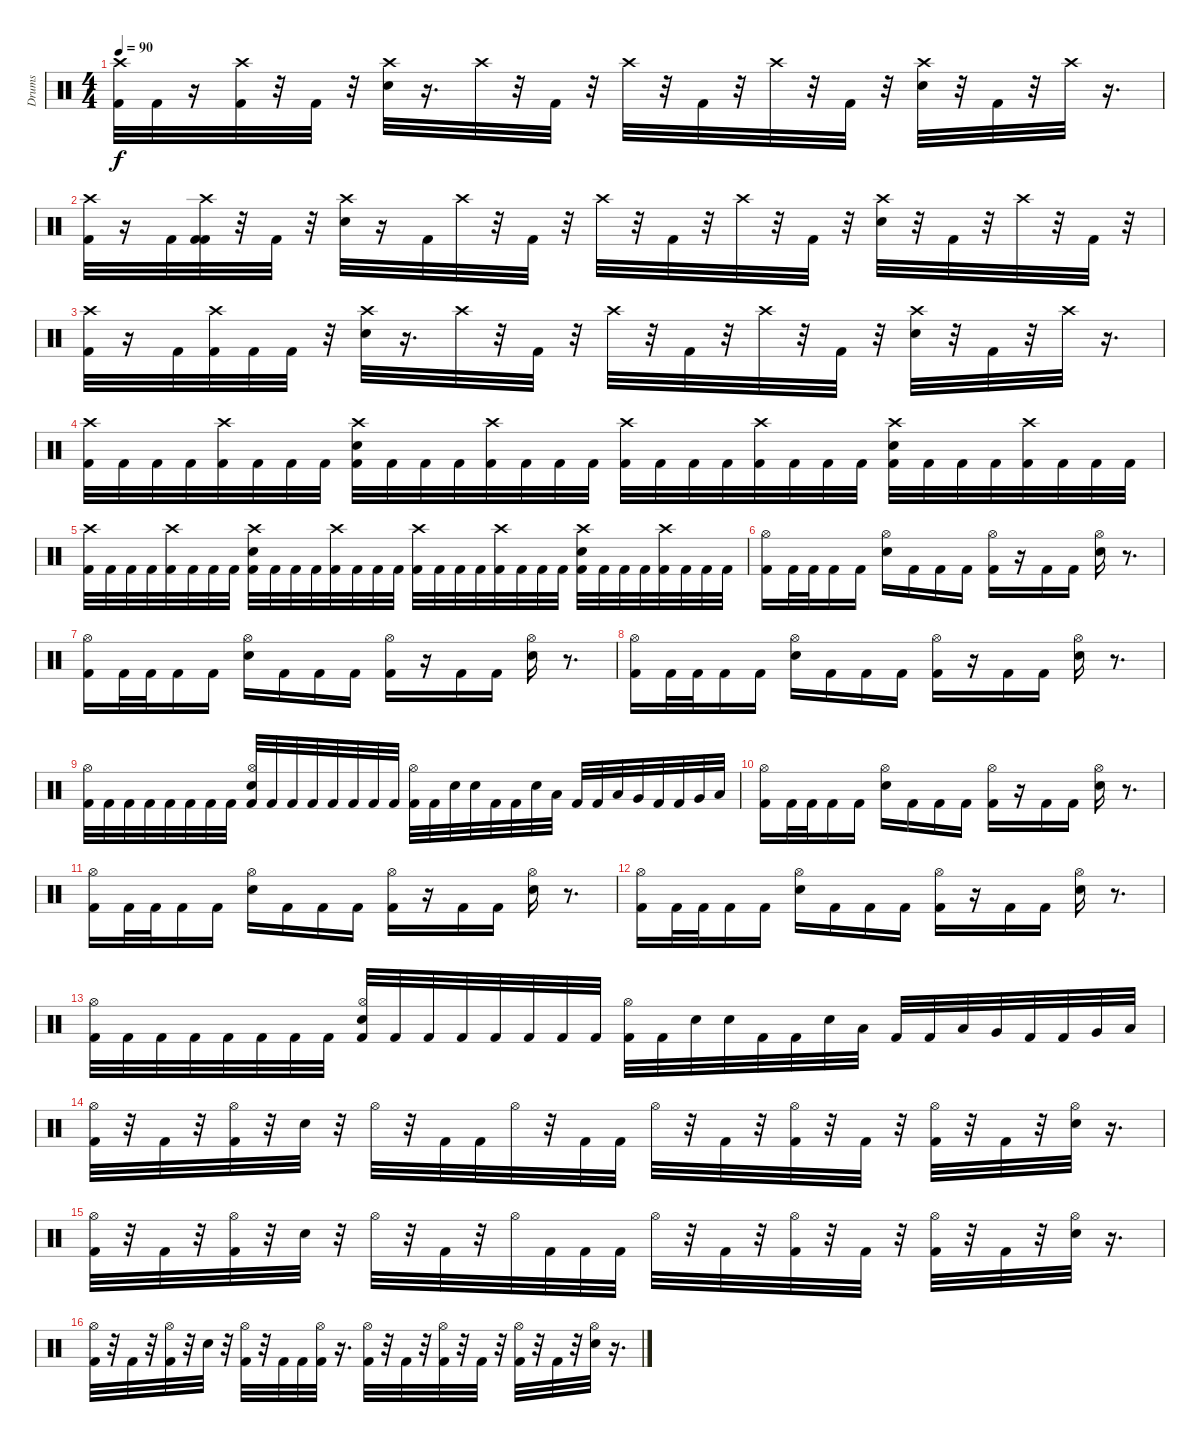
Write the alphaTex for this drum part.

\track ("Drums" "Drums") {instrument percussion}
\staff {score}
\articulation defaults
\ts (4 4)
\tempo 90
\clef neutral
\ks c
("Kick (hit) 2" "Crash high (hit)").32{dy f} "Kick (hit) 2".32 r.16 ("Kick (hit) 2" "Crash high (hit)").32 r.32 "Kick (hit) 2".32 r.32 ("Snare (hit) 2" "Crash high (hit)").32 r.16{d} "Crash high (hit)".32 r.32 "Kick (hit) 2".32 r.32 "Crash high (hit)".32 r.32 "Kick (hit) 2".32 r.32 "Crash high (hit)".32 r.32 "Kick (hit) 2".32 r.32 ("Snare (hit) 2" "Crash high (hit)").32 r.32 "Kick (hit) 2".32 r.32 "Crash high (hit)".32 r.16{d} |
("Kick (hit) 2" "Crash high (hit)").32 r.16 "Kick (hit) 2".32 ("Kick (hit) 2" "Kick (hit) 2" "Crash high (hit)").32 r.32 "Kick (hit) 2".32 r.32 ("Snare (hit) 2" "Crash high (hit)").32 r.16 "Kick (hit) 2".32 "Crash high (hit)".32 r.32 "Kick (hit) 2".32 r.32 "Crash high (hit)".32 r.32 "Kick (hit) 2".32 r.32 "Crash high (hit)".32 r.32 "Kick (hit) 2".32 r.32 ("Snare (hit) 2" "Crash high (hit)").32 r.32 "Kick (hit) 2".32 r.32 "Crash high (hit)".32 r.32 "Kick (hit) 2".32 r.32 |
("Kick (hit) 2" "Crash high (hit)").32 r.16 "Kick (hit) 2".32 ("Kick (hit) 2" "Crash high (hit)").32 "Kick (hit) 2".32 "Kick (hit) 2".32 r.32 ("Snare (hit) 2" "Crash high (hit)").32 r.16{d} "Crash high (hit)".32 r.32 "Kick (hit) 2".32 r.32 "Crash high (hit)".32 r.32 "Kick (hit) 2".32 r.32 "Crash high (hit)".32 r.32 "Kick (hit) 2".32 r.32 ("Snare (hit) 2" "Crash high (hit)").32 r.32 "Kick (hit) 2".32 r.32 "Crash high (hit)".32 r.16{d} |
("Kick (hit) 2" "Crash high (hit)").32 "Kick (hit) 2".32 "Kick (hit) 2".32 "Kick (hit) 2".32 ("Kick (hit) 2" "Crash high (hit)").32 "Kick (hit) 2".32 "Kick (hit) 2".32 "Kick (hit) 2".32 ("Snare (hit) 2" "Crash high (hit)" "Kick (hit) 2").32 "Kick (hit) 2".32 "Kick (hit) 2".32 "Kick (hit) 2".32 ("Crash high (hit)" "Kick (hit) 2").32 "Kick (hit) 2".32 "Kick (hit) 2".32 "Kick (hit) 2".32 ("Crash high (hit)" "Kick (hit) 2").32 "Kick (hit) 2".32 "Kick (hit) 2".32 "Kick (hit) 2".32 ("Kick (hit) 2" "Crash high (hit)").32 "Kick (hit) 2".32 "Kick (hit) 2".32 "Kick (hit) 2".32 ("Snare (hit) 2" "Crash high (hit)" "Kick (hit) 2").32 "Kick (hit) 2".32 "Kick (hit) 2".32 "Kick (hit) 2".32 ("Crash high (hit)" "Kick (hit) 2").32 "Kick (hit) 2".32 "Kick (hit) 2".32 "Kick (hit) 2".32 |
("Kick (hit) 2" "Crash high (hit)").32 "Kick (hit) 2".32 "Kick (hit) 2".32 "Kick (hit) 2".32 ("Kick (hit) 2" "Crash high (hit)").32 "Kick (hit) 2".32 "Kick (hit) 2".32 "Kick (hit) 2".32 ("Snare (hit) 2" "Crash high (hit)" "Kick (hit) 2").32 "Kick (hit) 2".32 "Kick (hit) 2".32 "Kick (hit) 2".32 ("Crash high (hit)" "Kick (hit) 2").32 "Kick (hit) 2".32 "Kick (hit) 2".32 "Kick (hit) 2".32 ("Crash high (hit)" "Kick (hit) 2").32 "Kick (hit) 2".32 "Kick (hit) 2".32 "Kick (hit) 2".32 ("Crash high (hit)" "Kick (hit) 2").32 "Kick (hit) 2".32 "Kick (hit) 2".32 "Kick (hit) 2".32 ("Snare (hit) 2" "Crash high (hit)" "Kick (hit) 2").32 "Kick (hit) 2".32 "Kick (hit) 2".32 "Kick (hit) 2".32 ("Crash high (hit)" "Kick (hit) 2").32 "Kick (hit) 2".32 "Kick (hit) 2".32 "Kick (hit) 2".32 |
("Kick (hit) 2" "Hi-Hat (open)").16 "Kick (hit) 2".32 "Kick (hit) 2".32 "Kick (hit) 2".16 "Kick (hit) 2".16 ("Electric Snare (hit)" "Hi-Hat (open)").16 "Kick (hit) 2".16 "Kick (hit) 2".16 "Kick (hit) 2".16 ("Kick (hit) 2" "Hi-Hat (open)").16 r.16 "Kick (hit) 2".16 "Kick (hit) 2".16 ("Electric Snare (hit)" "Hi-Hat (open)").16 r.8{d} |
("Kick (hit) 2" "Hi-Hat (open)").16 "Kick (hit) 2".32 "Kick (hit) 2".32 "Kick (hit) 2".16 "Kick (hit) 2".16 ("Electric Snare (hit)" "Hi-Hat (open)").16 "Kick (hit) 2".16 "Kick (hit) 2".16 "Kick (hit) 2".16 ("Kick (hit) 2" "Hi-Hat (open)").16 r.16 "Kick (hit) 2".16 "Kick (hit) 2".16 ("Electric Snare (hit)" "Hi-Hat (open)").16 r.8{d} |
("Kick (hit) 2" "Hi-Hat (open)").16 "Kick (hit) 2".32 "Kick (hit) 2".32 "Kick (hit) 2".16 "Kick (hit) 2".16 ("Electric Snare (hit)" "Hi-Hat (open)").16 "Kick (hit) 2".16 "Kick (hit) 2".16 "Kick (hit) 2".16 ("Kick (hit) 2" "Hi-Hat (open)").16 r.16 "Kick (hit) 2".16 "Kick (hit) 2".16 ("Electric Snare (hit)" "Hi-Hat (open)").16 r.8{d} |
("Kick (hit) 2" "Hi-Hat (open)").32 "Kick (hit) 2".32 "Kick (hit) 2".32 "Kick (hit) 2".32 "Kick (hit) 2".32 "Kick (hit) 2".32 "Kick (hit) 2".32 "Kick (hit) 2".32 ("Kick (hit) 2" "Electric Snare (hit)" "Hi-Hat (open)").32 "Kick (hit) 2".32 "Kick (hit) 2".32 "Kick (hit) 2".32 "Kick (hit) 2".32 "Kick (hit) 2".32 "Kick (hit) 2".32 "Kick (hit) 2".32 ("Kick (hit) 2" "Hi-Hat (open)").32 "Kick (hit) 2".32 "Electric Snare (hit)".32 "Electric Snare (hit)".32 "Kick (hit) 2".32 "Kick (hit) 2".32 "Electric Snare (hit)".32 "Low Tom (hit)".32 "Kick (hit) 2".32 "Kick (hit) 2".32 "Low Tom (hit)".32 "Very Low Tom (hit)".32 "Kick (hit) 2".32 "Kick (hit) 2".32 "Very Low Tom (hit)".32 "Low Floor Tom (hit)".32 |
("Kick (hit) 2" "Hi-Hat (open)").16 "Kick (hit) 2".32 "Kick (hit) 2".32 "Kick (hit) 2".16 "Kick (hit) 2".16 ("Electric Snare (hit)" "Hi-Hat (open)").16 "Kick (hit) 2".16 "Kick (hit) 2".16 "Kick (hit) 2".16 ("Kick (hit) 2" "Hi-Hat (open)").16 r.16 "Kick (hit) 2".16 "Kick (hit) 2".16 ("Electric Snare (hit)" "Hi-Hat (open)").16 r.8{d} |
("Kick (hit) 2" "Hi-Hat (open)").16 "Kick (hit) 2".32 "Kick (hit) 2".32 "Kick (hit) 2".16 "Kick (hit) 2".16 ("Electric Snare (hit)" "Hi-Hat (open)").16 "Kick (hit) 2".16 "Kick (hit) 2".16 "Kick (hit) 2".16 ("Kick (hit) 2" "Hi-Hat (open)").16 r.16 "Kick (hit) 2".16 "Kick (hit) 2".16 ("Electric Snare (hit)" "Hi-Hat (open)").16 r.8{d} |
("Kick (hit) 2" "Hi-Hat (open)").16 "Kick (hit) 2".32 "Kick (hit) 2".32 "Kick (hit) 2".16 "Kick (hit) 2".16 ("Electric Snare (hit)" "Hi-Hat (open)").16 "Kick (hit) 2".16 "Kick (hit) 2".16 "Kick (hit) 2".16 ("Kick (hit) 2" "Hi-Hat (open)").16 r.16 "Kick (hit) 2".16 "Kick (hit) 2".16 ("Electric Snare (hit)" "Hi-Hat (open)").16 r.8{d} |
("Kick (hit) 2" "Hi-Hat (open)").32 "Kick (hit) 2".32 "Kick (hit) 2".32 "Kick (hit) 2".32 "Kick (hit) 2".32 "Kick (hit) 2".32 "Kick (hit) 2".32 "Kick (hit) 2".32 ("Kick (hit) 2" "Electric Snare (hit)" "Hi-Hat (open)").32 "Kick (hit) 2".32 "Kick (hit) 2".32 "Kick (hit) 2".32 "Kick (hit) 2".32 "Kick (hit) 2".32 "Kick (hit) 2".32 "Kick (hit) 2".32 ("Kick (hit) 2" "Hi-Hat (open)").32 "Kick (hit) 2".32 "Electric Snare (hit)".32 "Electric Snare (hit)".32 "Kick (hit) 2".32 "Kick (hit) 2".32 "Electric Snare (hit)".32 "Low Tom (hit)".32 "Kick (hit) 2".32 "Kick (hit) 2".32 "Low Tom (hit)".32 "Very Low Tom (hit)".32 "Kick (hit) 2".32 "Kick (hit) 2".32 "Very Low Tom (hit)".32 "Low Floor Tom (hit)".32 |
("Kick (hit) 2" "Hi-Hat (open)").32 r.32 "Kick (hit) 2".32 r.32 ("Kick (hit) 2" "Hi-Hat (open)").32 r.32 "Snare (hit) 2".32 r.32 "Hi-Hat (open)".32 r.32 "Kick (hit) 2".32 "Kick (hit) 2".32 "Hi-Hat (open)".32 r.32 "Kick (hit) 2".32 "Kick (hit) 2".32 "Hi-Hat (open)".32 r.32 "Kick (hit) 2".32 r.32 ("Kick (hit) 2" "Hi-Hat (open)").32 r.32 "Kick (hit) 2".32 r.32 ("Kick (hit) 2" "Hi-Hat (open)").32 r.32 "Kick (hit) 2".32 r.32 ("Snare (hit) 2" "Hi-Hat (open)").32 r.16{d} |
("Kick (hit) 2" "Hi-Hat (open)").32 r.32 "Kick (hit) 2".32 r.32 ("Kick (hit) 2" "Hi-Hat (open)").32 r.32 "Snare (hit) 2".32 r.32 "Hi-Hat (open)".32 r.32 "Kick (hit) 2".32 r.32 "Hi-Hat (open)".32 "Kick (hit) 2".32 "Kick (hit) 2".32 "Kick (hit) 2".32 "Hi-Hat (open)".32 r.32 "Kick (hit) 2".32 r.32 ("Kick (hit) 2" "Hi-Hat (open)").32 r.32 "Kick (hit) 2".32 r.32 ("Kick (hit) 2" "Hi-Hat (open)").32 r.32 "Kick (hit) 2".32 r.32 ("Snare (hit) 2" "Hi-Hat (open)").32 r.16{d} |
("Kick (hit) 2" "Hi-Hat (open)").32 r.32 "Kick (hit) 2".32 r.32 ("Kick (hit) 2" "Hi-Hat (open)").32 r.32 "Snare (hit) 2".32 r.32 ("Kick (hit) 2" "Hi-Hat (open)").32 r.32 "Kick (hit) 2".32 "Kick (hit) 2".32 ("Kick (hit) 2" "Hi-Hat (open)").32 r.16{d} ("Kick (hit) 2" "Hi-Hat (open)").32 r.32 "Kick (hit) 2".32 r.32 ("Kick (hit) 2" "Hi-Hat (open)").32 r.32 "Kick (hit) 2".32 r.32 ("Kick (hit) 2" "Hi-Hat (open)").32 r.32 "Kick (hit) 2".32 r.32 ("Snare (hit) 2" "Hi-Hat (open)").32 r.16{d}
